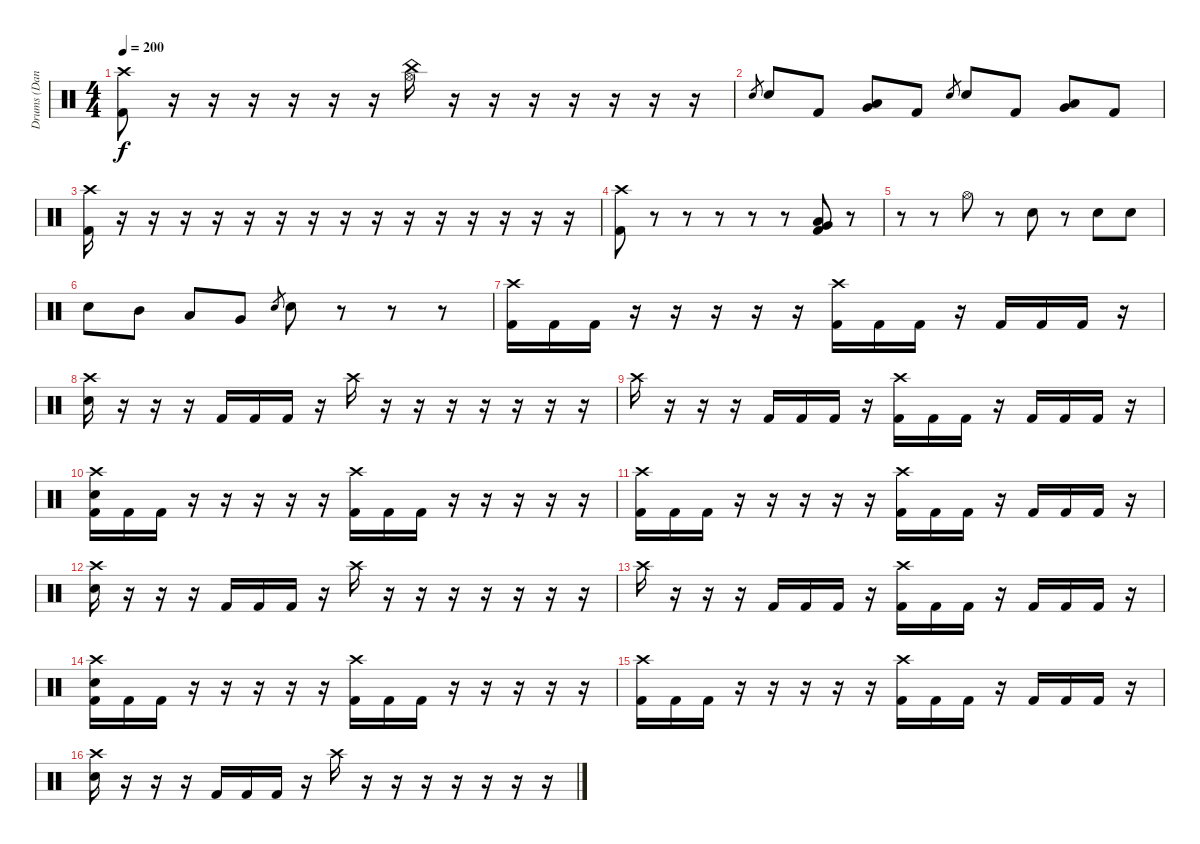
\track ("Drums (Daniel)" "Drums (Dan") {instrument percussion}
\staff {score}
\articulation defaults
\ts (4 4)
\tempo 200
\clef neutral
\ks c
("Crash high (hit)" "Kick (hit) 2").8{dy f} r.16 r.16 r.16 r.16 r.16 r.16 ("China (hit)" "Hi-Hat (open)").16 r.16 r.16 r.16 r.16 r.16 r.16 r.16 |
"Electric Snare (hit)".8{gr} "Electric Snare (hit)".8 "Kick (hit) 2".8 ("Low Tom (hit)" "Very Low Tom (hit)").8 "Kick (hit) 2".8 "Electric Snare (hit)".8{gr} "Electric Snare (hit)".8 "Kick (hit) 2".8 ("Low Tom (hit)" "Very Low Tom (hit)").8 "Kick (hit) 2".8 |
("Crash high (hit)" "Kick (hit) 2").16 r.16 r.16 r.16 r.16 r.16 r.16 r.16 r.16 r.16 r.16 r.16 r.16 r.16 r.16 r.16 |
("Crash high (hit)" "Kick (hit) 2").8 r.8 r.8 r.8 r.8 r.8 ("Low Tom (hit)" "Very Low Tom (hit)" "Kick (hit) 2").8 r.8 |
r.8 r.8 "Hi-Hat (open)".8 r.8 "Electric Snare (hit)".8 r.8 "Electric Snare (hit)".8 "Electric Snare (hit)".8 |
"Electric Snare (hit)".8 "Mid Tom (hit)".8 "Low Tom (hit)".8 "Very Low Tom (hit)".8 "Electric Snare (hit)".8{gr} "Electric Snare (hit)".8 r.8 r.8 r.8 |
("Crash high (hit)" "Kick (hit) 2").16 "Kick (hit) 2".16 "Kick (hit) 2".16 r.16 r.16 r.16 r.16 r.16 ("Crash high (hit)" "Kick (hit) 2").16 "Kick (hit) 2".16 "Kick (hit) 2".16 r.16 "Kick (hit) 2".16 "Kick (hit) 2".16 "Kick (hit) 2".16 r.16 |
("Crash high (hit)" "Electric Snare (hit)").16 r.16 r.16 r.16 "Kick (hit) 2".16 "Kick (hit) 2".16 "Kick (hit) 2".16 r.16 "Crash high (hit)".16 r.16 r.16 r.16 r.16 r.16 r.16 r.16 |
"Crash high (hit)".16 r.16 r.16 r.16 "Kick (hit) 2".16 "Kick (hit) 2".16 "Kick (hit) 2".16 r.16 ("Crash high (hit)" "Kick (hit) 2").16 "Kick (hit) 2".16 "Kick (hit) 2".16 r.16 "Kick (hit) 2".16 "Kick (hit) 2".16 "Kick (hit) 2".16 r.16 |
("Crash high (hit)" "Electric Snare (hit)" "Kick (hit) 2").16 "Kick (hit) 2".16 "Kick (hit) 2".16 r.16 r.16 r.16 r.16 r.16 ("Crash high (hit)" "Kick (hit) 2").16 "Kick (hit) 2".16 "Kick (hit) 2".16 r.16 r.16 r.16 r.16 r.16 |
("Crash high (hit)" "Kick (hit) 2").16 "Kick (hit) 2".16 "Kick (hit) 2".16 r.16 r.16 r.16 r.16 r.16 ("Crash high (hit)" "Kick (hit) 2").16 "Kick (hit) 2".16 "Kick (hit) 2".16 r.16 "Kick (hit) 2".16 "Kick (hit) 2".16 "Kick (hit) 2".16 r.16 |
("Crash high (hit)" "Electric Snare (hit)").16 r.16 r.16 r.16 "Kick (hit) 2".16 "Kick (hit) 2".16 "Kick (hit) 2".16 r.16 "Crash high (hit)".16 r.16 r.16 r.16 r.16 r.16 r.16 r.16 |
"Crash high (hit)".16 r.16 r.16 r.16 "Kick (hit) 2".16 "Kick (hit) 2".16 "Kick (hit) 2".16 r.16 ("Crash high (hit)" "Kick (hit) 2").16 "Kick (hit) 2".16 "Kick (hit) 2".16 r.16 "Kick (hit) 2".16 "Kick (hit) 2".16 "Kick (hit) 2".16 r.16 |
("Crash high (hit)" "Electric Snare (hit)" "Kick (hit) 2").16 "Kick (hit) 2".16 "Kick (hit) 2".16 r.16 r.16 r.16 r.16 r.16 ("Crash high (hit)" "Kick (hit) 2").16 "Kick (hit) 2".16 "Kick (hit) 2".16 r.16 r.16 r.16 r.16 r.16 |
("Crash high (hit)" "Kick (hit) 2").16 "Kick (hit) 2".16 "Kick (hit) 2".16 r.16 r.16 r.16 r.16 r.16 ("Crash high (hit)" "Kick (hit) 2").16 "Kick (hit) 2".16 "Kick (hit) 2".16 r.16 "Kick (hit) 2".16 "Kick (hit) 2".16 "Kick (hit) 2".16 r.16 |
("Crash high (hit)" "Electric Snare (hit)").16 r.16 r.16 r.16 "Kick (hit) 2".16 "Kick (hit) 2".16 "Kick (hit) 2".16 r.16 "Crash high (hit)".16 r.16 r.16 r.16 r.16 r.16 r.16 r.16
